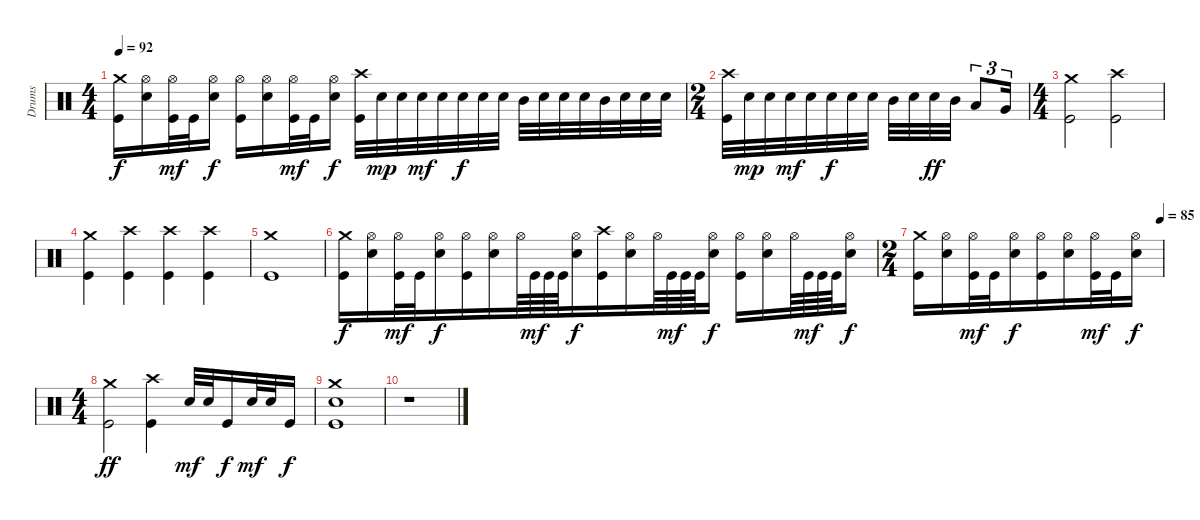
\track ("Drums" "Drums") {instrument percussion}
\staff {score}
\articulation defaults
\ts (4 4)
\tempo 92
\clef neutral
\ks c
("Crash medium (hit)" "Kick (hit)").16{dy f} ("Hi-Hat (open)" "Snare (hit) 2").16 ("Hi-Hat (open)" "Kick (hit)").32{dy mf} "Kick (hit)".32 ("Hi-Hat (open)" "Snare (hit) 2").16{dy f} ("Hi-Hat (open)" "Kick (hit)").16 ("Hi-Hat (open)" "Snare (hit) 2").16 ("Hi-Hat (open)" "Kick (hit)").32{dy mf} "Kick (hit)".32 ("Hi-Hat (open)" "Snare (hit) 2").16{dy f} ("Crash high (hit)" "Kick (hit)").32 "Snare (hit) 2".32{dy mp} "Snare (hit) 2".32 "Snare (hit) 2".32{dy mf} "Snare (hit) 2".32 "Snare (hit) 2".32{dy f} "Snare (hit) 2".32 "Snare (hit) 2".32 "Mid Tom (hit)".32 "Snare (hit) 2".32 "Snare (hit) 2".32 "Snare (hit) 2".32 "Mid Tom (hit)".32 "Snare (hit) 2".32 "Snare (hit) 2".32 "Snare (hit) 2".32 |
\ts (2 4)
\beaming (8 2 2)
("Crash high (hit)" "Kick (hit)").32 "Snare (hit) 2".32{dy mp} "Snare (hit) 2".32 "Snare (hit) 2".32{dy mf} "Snare (hit) 2".32 "Snare (hit) 2".32{dy f} "Snare (hit) 2".32 "Snare (hit) 2".32 "Mid Tom (hit)".32 "Snare (hit) 2".32 "Snare (hit) 2".32{dy ff} "Mid Tom (hit)".32 "Low Tom (hit)".8{tu (3 2)} "Very Low Tom (hit)".16{tu (3 2)} |
\ts (4 4)
\beaming (8 6 4)
("Crash medium (hit)" "Kick (hit)").2 ("Crash high (hit)" "Kick (hit)").2 |
("Crash medium (hit)" "Kick (hit)").4 ("Crash high (hit)" "Kick (hit)").4 ("Crash high (hit)" "Kick (hit)").4 ("Crash high (hit)" "Kick (hit)").4 |
("Crash medium (hit)" "Kick (hit)").1 |
("Crash medium (hit)" "Kick (hit)").16{dy f} ("Hi-Hat (open)" "Snare (hit) 2").16 ("Hi-Hat (open)" "Kick (hit)").32{dy mf} "Kick (hit)".32 ("Hi-Hat (open)" "Snare (hit) 2").16{dy f} ("Hi-Hat (open)" "Kick (hit)").16 ("Hi-Hat (open)" "Snare (hit) 2").16 "Hi-Hat (open)".64 "Kick (hit)".64{dy mf} "Kick (hit)".64 "Kick (hit)".64 ("Hi-Hat (open)" "Snare (hit) 2").16{dy f} ("Crash high (hit)" "Kick (hit)").16 ("Hi-Hat (open)" "Snare (hit) 2").16 "Hi-Hat (open)".64 "Kick (hit)".64{dy mf} "Kick (hit)".64 "Kick (hit)".64 ("Hi-Hat (open)" "Snare (hit) 2").16{dy f} ("Hi-Hat (open)" "Kick (hit)").16 ("Hi-Hat (open)" "Snare (hit) 2").16 "Hi-Hat (open)".64 "Kick (hit)".64{dy mf} "Kick (hit)".64 "Kick (hit)".64 ("Hi-Hat (open)" "Snare (hit) 2").16{dy f} |
\ts (2 4)
\beaming (8 6 4)
\tempo (85 0.99375)
("Crash medium (hit)" "Kick (hit)").16 ("Hi-Hat (open)" "Snare (hit) 2").16 ("Hi-Hat (open)" "Kick (hit)").32{dy mf} "Kick (hit)".32 ("Hi-Hat (open)" "Snare (hit) 2").16{dy f} ("Hi-Hat (open)" "Kick (hit)").16 ("Hi-Hat (open)" "Snare (hit) 2").16 ("Hi-Hat (open)" "Kick (hit)").32{dy mf} "Kick (hit)".32 ("Hi-Hat (open)" "Snare (hit) 2").16{dy f} |
\ts (4 4)
\beaming (8 6 4)
("Crash medium (hit)" "Kick (hit)").2{dy ff} ("Crash high (hit)" "Kick (hit)").4 "Snare (hit) 2".32{dy mf} "Snare (hit) 2".32 "Kick (hit)".16{dy f} "Snare (hit) 2".32{dy mf} "Snare (hit) 2".32 "Kick (hit)".16{dy f} |
("Crash medium (hit)" "Snare (hit) 2" "Kick (hit)").1 |
r.1
